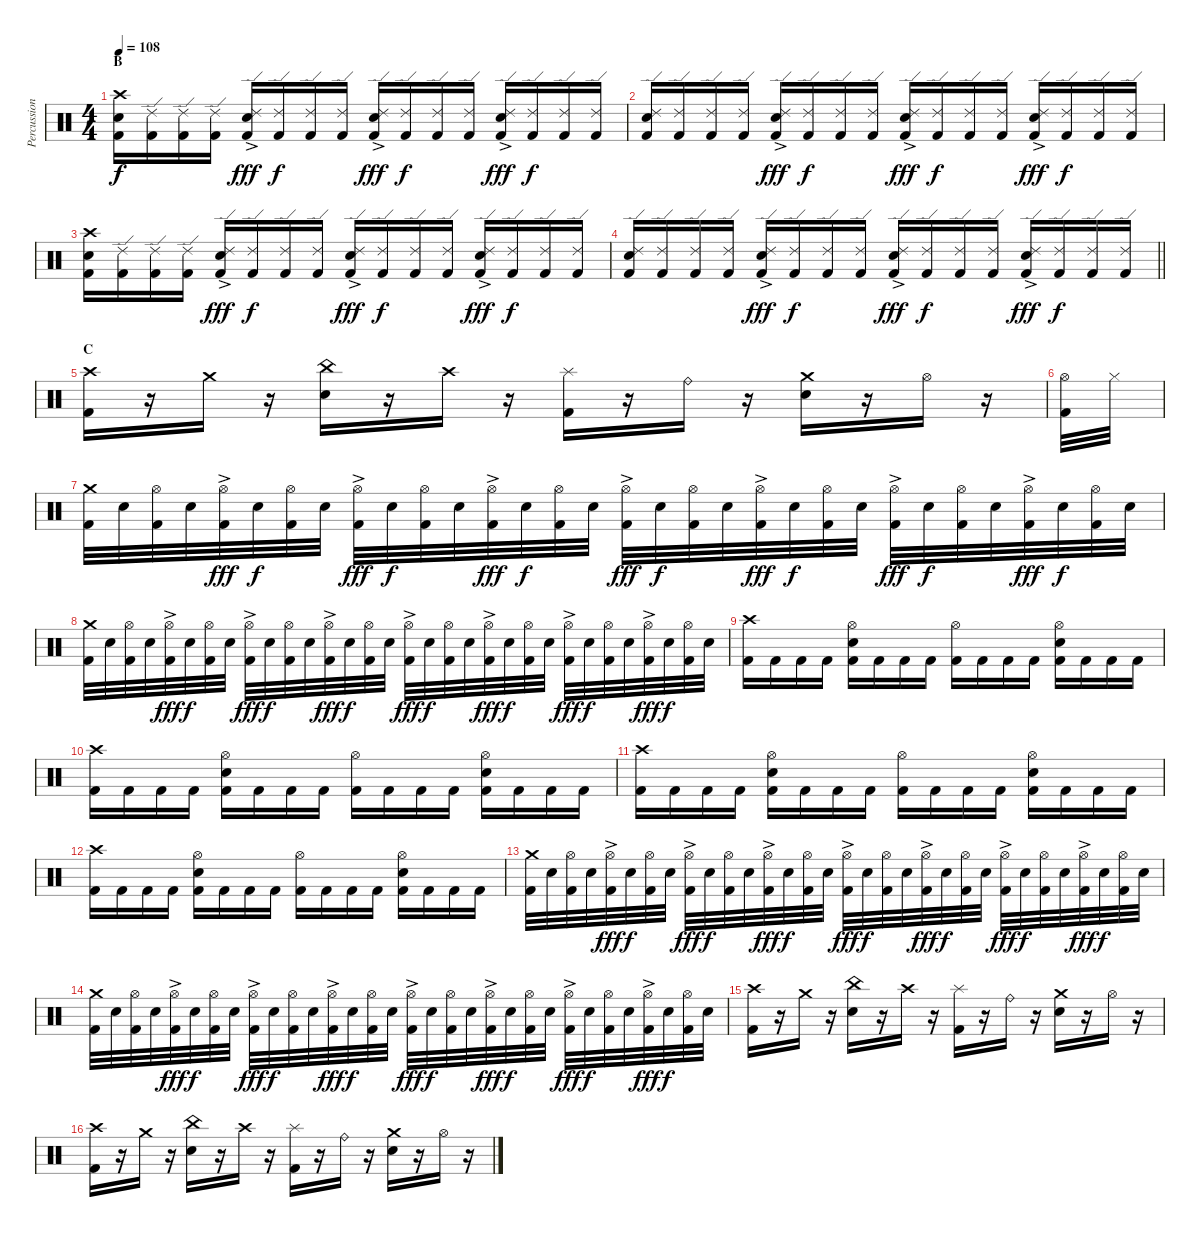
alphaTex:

\track ("Percussion" "Percussion") {instrument percussion}
\staff {score}
\articulation defaults
\ts (4 4)
\section ("" "B")
\tempo 108
\clef neutral
\ks c
("Crash high (hit)" "Electric Snare (hit)" "Kick (hit) 2").16{dy f} ("Ride (edge) 2" "Kick (hit) 2").16 ("Ride (edge) 2" "Kick (hit) 2").16 ("Ride (edge) 2" "Kick (hit) 2").16 ("Ride (edge) 2"{ac} "Electric Snare (hit)" "Kick (hit) 2").16{dy fff} ("Ride (edge) 2" "Kick (hit) 2").16{dy f} ("Ride (edge) 2" "Kick (hit) 2").16 ("Ride (edge) 2" "Kick (hit) 2").16 ("Ride (edge) 2"{ac} "Electric Snare (hit)" "Kick (hit) 2").16{dy fff} ("Ride (edge) 2" "Kick (hit) 2").16{dy f} ("Ride (edge) 2" "Kick (hit) 2").16 ("Ride (edge) 2" "Kick (hit) 2").16 ("Ride (edge) 2"{ac} "Electric Snare (hit)" "Kick (hit) 2").16{dy fff} ("Ride (edge) 2" "Kick (hit) 2").16{dy f} ("Ride (edge) 2" "Kick (hit) 2").16 ("Ride (edge) 2" "Kick (hit) 2").16 |
("Ride (edge) 2" "Electric Snare (hit)" "Kick (hit) 2").16 ("Ride (edge) 2" "Kick (hit) 2").16 ("Ride (edge) 2" "Kick (hit) 2").16 ("Ride (edge) 2" "Kick (hit) 2").16 ("Ride (edge) 2"{ac} "Electric Snare (hit)" "Kick (hit) 2").16{dy fff} ("Ride (edge) 2" "Kick (hit) 2").16{dy f} ("Ride (edge) 2" "Kick (hit) 2").16 ("Ride (edge) 2" "Kick (hit) 2").16 ("Ride (edge) 2"{ac} "Electric Snare (hit)" "Kick (hit) 2").16{dy fff} ("Ride (edge) 2" "Kick (hit) 2").16{dy f} ("Ride (edge) 2" "Kick (hit) 2").16 ("Ride (edge) 2" "Kick (hit) 2").16 ("Ride (edge) 2"{ac} "Electric Snare (hit)" "Kick (hit) 2").16{dy fff} ("Ride (edge) 2" "Kick (hit) 2").16{dy f} ("Ride (edge) 2" "Kick (hit) 2").16 ("Ride (edge) 2" "Kick (hit) 2").16 |
("Crash high (hit)" "Electric Snare (hit)" "Kick (hit) 2").16 ("Ride (edge) 2" "Kick (hit) 2").16 ("Ride (edge) 2" "Kick (hit) 2").16 ("Ride (edge) 2" "Kick (hit) 2").16 ("Ride (edge) 2"{ac} "Electric Snare (hit)" "Kick (hit) 2").16{dy fff} ("Ride (edge) 2" "Kick (hit) 2").16{dy f} ("Ride (edge) 2" "Kick (hit) 2").16 ("Ride (edge) 2" "Kick (hit) 2").16 ("Ride (edge) 2"{ac} "Electric Snare (hit)" "Kick (hit) 2").16{dy fff} ("Ride (edge) 2" "Kick (hit) 2").16{dy f} ("Ride (edge) 2" "Kick (hit) 2").16 ("Ride (edge) 2" "Kick (hit) 2").16 ("Ride (edge) 2"{ac} "Electric Snare (hit)" "Kick (hit) 2").16{dy fff} ("Ride (edge) 2" "Kick (hit) 2").16{dy f} ("Ride (edge) 2" "Kick (hit) 2").16 ("Ride (edge) 2" "Kick (hit) 2").16 |
\barLineRight lightlight
("Ride (edge) 2" "Electric Snare (hit)" "Kick (hit) 2").16 ("Ride (edge) 2" "Kick (hit) 2").16 ("Ride (edge) 2" "Kick (hit) 2").16 ("Ride (edge) 2" "Kick (hit) 2").16 ("Ride (edge) 2"{ac} "Electric Snare (hit)" "Kick (hit) 2").16{dy fff} ("Ride (edge) 2" "Kick (hit) 2").16{dy f} ("Ride (edge) 2" "Kick (hit) 2").16 ("Ride (edge) 2" "Kick (hit) 2").16 ("Ride (edge) 2"{ac} "Electric Snare (hit)" "Kick (hit) 2").16{dy fff} ("Ride (edge) 2" "Kick (hit) 2").16{dy f} ("Ride (edge) 2" "Kick (hit) 2").16 ("Ride (edge) 2" "Kick (hit) 2").16 ("Ride (edge) 2"{ac} "Electric Snare (hit)" "Kick (hit) 2").16{dy fff} ("Ride (edge) 2" "Kick (hit) 2").16{dy f} ("Ride (edge) 2" "Kick (hit) 2").16 ("Ride (edge) 2" "Kick (hit) 2").16 |
\section ("" "C")
("Crash high (hit)" "Kick (hit) 2").16 r.16 "Crash medium (hit)".16 r.16 ("China (hit)" "Electric Snare (hit)").16 r.16 "Crash high (hit)".16 r.16 ("Splash (hit)" "Kick (hit) 2").16 r.16 "Ride (bell)".16 r.16 ("Crash medium (hit)" "Electric Snare (hit)").16 r.16 "Hi-Hat (open)".16 r.16 |
("Hi-Hat (open)" "Kick (hit) 2").32 "Hi-Hat (closed)".32 |
("Crash medium (hit)" "Kick (hit) 2").32 "Electric Snare (hit)".32 ("Hi-Hat (open)" "Kick (hit) 2").32 "Electric Snare (hit)".32 ("Hi-Hat (open)"{ac} "Kick (hit) 2").32{dy fff} "Electric Snare (hit)".32{dy f} ("Hi-Hat (open)" "Kick (hit) 2").32 "Electric Snare (hit)".32 ("Hi-Hat (open)"{ac} "Kick (hit) 2").32{dy fff} "Electric Snare (hit)".32{dy f} ("Hi-Hat (open)" "Kick (hit) 2").32 "Electric Snare (hit)".32 ("Hi-Hat (open)"{ac} "Kick (hit) 2").32{dy fff} "Electric Snare (hit)".32{dy f} ("Hi-Hat (open)" "Kick (hit) 2").32 "Electric Snare (hit)".32 ("Hi-Hat (open)"{ac} "Kick (hit) 2").32{dy fff} "Electric Snare (hit)".32{dy f} ("Hi-Hat (open)" "Kick (hit) 2").32 "Electric Snare (hit)".32 ("Hi-Hat (open)"{ac} "Kick (hit) 2").32{dy fff} "Electric Snare (hit)".32{dy f} ("Hi-Hat (open)" "Kick (hit) 2").32 "Electric Snare (hit)".32 ("Hi-Hat (open)"{ac} "Kick (hit) 2").32{dy fff} "Electric Snare (hit)".32{dy f} ("Hi-Hat (open)" "Kick (hit) 2").32 "Electric Snare (hit)".32 ("Hi-Hat (open)"{ac} "Kick (hit) 2").32{dy fff} "Electric Snare (hit)".32{dy f} ("Hi-Hat (open)" "Kick (hit) 2").32 "Electric Snare (hit)".32 |
("Crash medium (hit)" "Kick (hit) 2").32 "Electric Snare (hit)".32 ("Hi-Hat (open)" "Kick (hit) 2").32 "Electric Snare (hit)".32 ("Hi-Hat (open)"{ac} "Kick (hit) 2").32{dy fff} "Electric Snare (hit)".32{dy f} ("Hi-Hat (open)" "Kick (hit) 2").32 "Electric Snare (hit)".32 ("Hi-Hat (open)"{ac} "Kick (hit) 2").32{dy fff} "Electric Snare (hit)".32{dy f} ("Hi-Hat (open)" "Kick (hit) 2").32 "Electric Snare (hit)".32 ("Hi-Hat (open)"{ac} "Kick (hit) 2").32{dy fff} "Electric Snare (hit)".32{dy f} ("Hi-Hat (open)" "Kick (hit) 2").32 "Electric Snare (hit)".32 ("Hi-Hat (open)"{ac} "Kick (hit) 2").32{dy fff} "Electric Snare (hit)".32{dy f} ("Hi-Hat (open)" "Kick (hit) 2").32 "Electric Snare (hit)".32 ("Hi-Hat (open)"{ac} "Kick (hit) 2").32{dy fff} "Electric Snare (hit)".32{dy f} ("Hi-Hat (open)" "Kick (hit) 2").32 "Electric Snare (hit)".32 ("Hi-Hat (open)"{ac} "Kick (hit) 2").32{dy fff} "Electric Snare (hit)".32{dy f} ("Hi-Hat (open)" "Kick (hit) 2").32 "Electric Snare (hit)".32 ("Hi-Hat (open)"{ac} "Kick (hit) 2").32{dy fff} "Electric Snare (hit)".32{dy f} ("Hi-Hat (open)" "Kick (hit) 2").32 "Electric Snare (hit)".32 |
("Crash high (hit)" "Kick (hit) 2").16 "Kick (hit) 2".16 "Kick (hit) 2".16 "Kick (hit) 2".16 ("Hi-Hat (open)" "Electric Snare (hit)" "Kick (hit) 2").16 "Kick (hit) 2".16 "Kick (hit) 2".16 "Kick (hit) 2".16 ("Hi-Hat (open)" "Kick (hit) 2").16 "Kick (hit) 2".16 "Kick (hit) 2".16 "Kick (hit) 2".16 ("Hi-Hat (open)" "Electric Snare (hit)" "Kick (hit) 2").16 "Kick (hit) 2".16 "Kick (hit) 2".16 "Kick (hit) 2".16 |
("Crash high (hit)" "Kick (hit) 2").16 "Kick (hit) 2".16 "Kick (hit) 2".16 "Kick (hit) 2".16 ("Hi-Hat (open)" "Electric Snare (hit)" "Kick (hit) 2").16 "Kick (hit) 2".16 "Kick (hit) 2".16 "Kick (hit) 2".16 ("Hi-Hat (open)" "Kick (hit) 2").16 "Kick (hit) 2".16 "Kick (hit) 2".16 "Kick (hit) 2".16 ("Hi-Hat (open)" "Electric Snare (hit)" "Kick (hit) 2").16 "Kick (hit) 2".16 "Kick (hit) 2".16 "Kick (hit) 2".16 |
("Crash high (hit)" "Kick (hit) 2").16 "Kick (hit) 2".16 "Kick (hit) 2".16 "Kick (hit) 2".16 ("Hi-Hat (open)" "Electric Snare (hit)" "Kick (hit) 2").16 "Kick (hit) 2".16 "Kick (hit) 2".16 "Kick (hit) 2".16 ("Hi-Hat (open)" "Kick (hit) 2").16 "Kick (hit) 2".16 "Kick (hit) 2".16 "Kick (hit) 2".16 ("Hi-Hat (open)" "Electric Snare (hit)" "Kick (hit) 2").16 "Kick (hit) 2".16 "Kick (hit) 2".16 "Kick (hit) 2".16 |
("Crash high (hit)" "Kick (hit) 2").16 "Kick (hit) 2".16 "Kick (hit) 2".16 "Kick (hit) 2".16 ("Hi-Hat (open)" "Electric Snare (hit)" "Kick (hit) 2").16 "Kick (hit) 2".16 "Kick (hit) 2".16 "Kick (hit) 2".16 ("Hi-Hat (open)" "Kick (hit) 2").16 "Kick (hit) 2".16 "Kick (hit) 2".16 "Kick (hit) 2".16 ("Hi-Hat (open)" "Electric Snare (hit)" "Kick (hit) 2").16 "Kick (hit) 2".16 "Kick (hit) 2".16 "Kick (hit) 2".16 |
("Crash medium (hit)" "Kick (hit) 2").32 "Electric Snare (hit)".32 ("Hi-Hat (open)" "Kick (hit) 2").32 "Electric Snare (hit)".32 ("Hi-Hat (open)"{ac} "Kick (hit) 2").32{dy fff} "Electric Snare (hit)".32{dy f} ("Hi-Hat (open)" "Kick (hit) 2").32 "Electric Snare (hit)".32 ("Hi-Hat (open)"{ac} "Kick (hit) 2").32{dy fff} "Electric Snare (hit)".32{dy f} ("Hi-Hat (open)" "Kick (hit) 2").32 "Electric Snare (hit)".32 ("Hi-Hat (open)"{ac} "Kick (hit) 2").32{dy fff} "Electric Snare (hit)".32{dy f} ("Hi-Hat (open)" "Kick (hit) 2").32 "Electric Snare (hit)".32 ("Hi-Hat (open)"{ac} "Kick (hit) 2").32{dy fff} "Electric Snare (hit)".32{dy f} ("Hi-Hat (open)" "Kick (hit) 2").32 "Electric Snare (hit)".32 ("Hi-Hat (open)"{ac} "Kick (hit) 2").32{dy fff} "Electric Snare (hit)".32{dy f} ("Hi-Hat (open)" "Kick (hit) 2").32 "Electric Snare (hit)".32 ("Hi-Hat (open)"{ac} "Kick (hit) 2").32{dy fff} "Electric Snare (hit)".32{dy f} ("Hi-Hat (open)" "Kick (hit) 2").32 "Electric Snare (hit)".32 ("Hi-Hat (open)"{ac} "Kick (hit) 2").32{dy fff} "Electric Snare (hit)".32{dy f} ("Hi-Hat (open)" "Kick (hit) 2").32 "Electric Snare (hit)".32 |
("Crash medium (hit)" "Kick (hit) 2").32 "Electric Snare (hit)".32 ("Hi-Hat (open)" "Kick (hit) 2").32 "Electric Snare (hit)".32 ("Hi-Hat (open)"{ac} "Kick (hit) 2").32{dy fff} "Electric Snare (hit)".32{dy f} ("Hi-Hat (open)" "Kick (hit) 2").32 "Electric Snare (hit)".32 ("Hi-Hat (open)"{ac} "Kick (hit) 2").32{dy fff} "Electric Snare (hit)".32{dy f} ("Hi-Hat (open)" "Kick (hit) 2").32 "Electric Snare (hit)".32 ("Hi-Hat (open)"{ac} "Kick (hit) 2").32{dy fff} "Electric Snare (hit)".32{dy f} ("Hi-Hat (open)" "Kick (hit) 2").32 "Electric Snare (hit)".32 ("Hi-Hat (open)"{ac} "Kick (hit) 2").32{dy fff} "Electric Snare (hit)".32{dy f} ("Hi-Hat (open)" "Kick (hit) 2").32 "Electric Snare (hit)".32 ("Hi-Hat (open)"{ac} "Kick (hit) 2").32{dy fff} "Electric Snare (hit)".32{dy f} ("Hi-Hat (open)" "Kick (hit) 2").32 "Electric Snare (hit)".32 ("Hi-Hat (open)"{ac} "Kick (hit) 2").32{dy fff} "Electric Snare (hit)".32{dy f} ("Hi-Hat (open)" "Kick (hit) 2").32 "Electric Snare (hit)".32 ("Hi-Hat (open)"{ac} "Kick (hit) 2").32{dy fff} "Electric Snare (hit)".32{dy f} ("Hi-Hat (open)" "Kick (hit) 2").32 "Electric Snare (hit)".32 |
("Crash high (hit)" "Kick (hit) 2").16 r.16 "Crash medium (hit)".16 r.16 ("China (hit)" "Electric Snare (hit)").16 r.16 "Crash high (hit)".16 r.16 ("Splash (hit)" "Kick (hit) 2").16 r.16 "Ride (bell)".16 r.16 ("Crash medium (hit)" "Electric Snare (hit)").16 r.16 "Hi-Hat (open)".16 r.16 |
("Crash high (hit)" "Kick (hit) 2").16 r.16 "Crash medium (hit)".16 r.16 ("China (hit)" "Electric Snare (hit)").16 r.16 "Crash high (hit)".16 r.16 ("Splash (hit)" "Kick (hit) 2").16 r.16 "Ride (bell)".16 r.16 ("Crash medium (hit)" "Electric Snare (hit)").16 r.16 "Hi-Hat (open)".16 r.16
